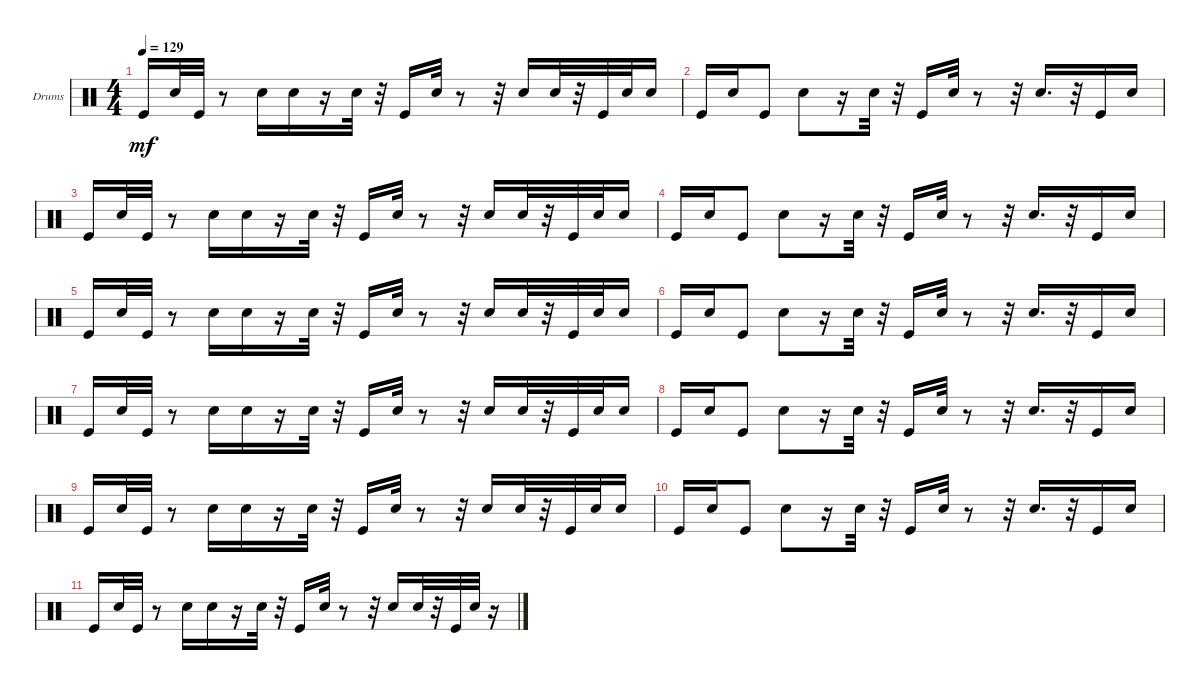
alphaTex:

\bracketExtendMode groupsimilarinstruments
\firstSystemTrackNameOrientation horizontal
\otherSystemsTrackNameOrientation horizontal
\track ("istar" "Drums") {instrument percussion}
\staff {score}
\articulation defaults
\ts (4 4)
\tempo 129
\clef neutral
\ks c "Kick (hit)".16{dy mf} "Snare (hit) 2".32 "Kick (hit)".32
r.8 "Snare (hit) 2".16 "Snare (hit) 2".16 r.16 "Snare (hit) 2".32 r.32 "Kick (hit)".16 "Snare (hit) 2".32 r.8 r.32 "Snare (hit) 2".16 "Snare (hit) 2".32 r.32 "Kick (hit)".32 "Snare (hit) 2".32 "Snare (hit) 2".16 |
"Kick (hit)".16 "Snare (hit) 2".16 "Kick (hit)".8 "Snare (hit) 2".8 r.16 "Snare (hit) 2".32 r.32 "Kick (hit)".16 "Snare (hit) 2".32 r.8 r.32 "Snare (hit) 2".16{d} r.32 "Kick (hit)".16 "Snare (hit) 2".16 |
"Kick (hit)".16 "Snare (hit) 2".32 "Kick (hit)".32 r.8 "Snare (hit) 2".16 "Snare (hit) 2".16 r.16 "Snare (hit) 2".32 r.32 "Kick (hit)".16 "Snare (hit) 2".32 r.8 r.32 "Snare (hit) 2".16 "Snare (hit) 2".32 r.32 "Kick (hit)".32 "Snare (hit) 2".32 "Snare (hit) 2".16 |
"Kick (hit)".16 "Snare (hit) 2".16 "Kick (hit)".8 "Snare (hit) 2".8 r.16 "Snare (hit) 2".32 r.32 "Kick (hit)".16 "Snare (hit) 2".32 r.8 r.32 "Snare (hit) 2".16{d} r.32 "Kick (hit)".16 "Snare (hit) 2".16 |
"Kick (hit)".16 "Snare (hit) 2".32 "Kick (hit)".32 r.8 "Snare (hit) 2".16 "Snare (hit) 2".16 r.16 "Snare (hit) 2".32 r.32 "Kick (hit)".16 "Snare (hit) 2".32 r.8 r.32 "Snare (hit) 2".16 "Snare (hit) 2".32 r.32 "Kick (hit)".32 "Snare (hit) 2".32 "Snare (hit) 2".16 |
"Kick (hit)".16 "Snare (hit) 2".16 "Kick (hit)".8 "Snare (hit) 2".8 r.16 "Snare (hit) 2".32 r.32 "Kick (hit)".16 "Snare (hit) 2".32 r.8 r.32 "Snare (hit) 2".16{d} r.32 "Kick (hit)".16 "Snare (hit) 2".16 |
"Kick (hit)".16 "Snare (hit) 2".32 "Kick (hit)".32 r.8 "Snare (hit) 2".16 "Snare (hit) 2".16 r.16 "Snare (hit) 2".32 r.32 "Kick (hit)".16 "Snare (hit) 2".32 r.8 r.32 "Snare (hit) 2".16 "Snare (hit) 2".32 r.32 "Kick (hit)".32 "Snare (hit) 2".32 "Snare (hit) 2".16 |
"Kick (hit)".16 "Snare (hit) 2".16 "Kick (hit)".8 "Snare (hit) 2".8 r.16 "Snare (hit) 2".32 r.32 "Kick (hit)".16 "Snare (hit) 2".32 r.8 r.32 "Snare (hit) 2".16{d} r.32 "Kick (hit)".16 "Snare (hit) 2".16 |
"Kick (hit)".16 "Snare (hit) 2".32 "Kick (hit)".32 r.8 "Snare (hit) 2".16 "Snare (hit) 2".16 r.16 "Snare (hit) 2".32 r.32 "Kick (hit)".16 "Snare (hit) 2".32 r.8 r.32 "Snare (hit) 2".16 "Snare (hit) 2".32 r.32 "Kick (hit)".32 "Snare (hit) 2".32 "Snare (hit) 2".16 |
"Kick (hit)".16 "Snare (hit) 2".16 "Kick (hit)".8 "Snare (hit) 2".8 r.16 "Snare (hit) 2".32 r.32 "Kick (hit)".16 "Snare (hit) 2".32 r.8 r.32 "Snare (hit) 2".16{d} r.32 "Kick (hit)".16 "Snare (hit) 2".16 |
"Kick (hit)".16 "Snare (hit) 2".32 "Kick (hit)".32 r.8 "Snare (hit) 2".16 "Snare (hit) 2".16 r.16 "Snare (hit) 2".32 r.32 "Kick (hit)".16 "Snare (hit) 2".32 r.8 r.32 "Snare (hit) 2".16 "Snare (hit) 2".32 r.32 "Kick (hit)".32 "Snare (hit) 2".32 r.16
